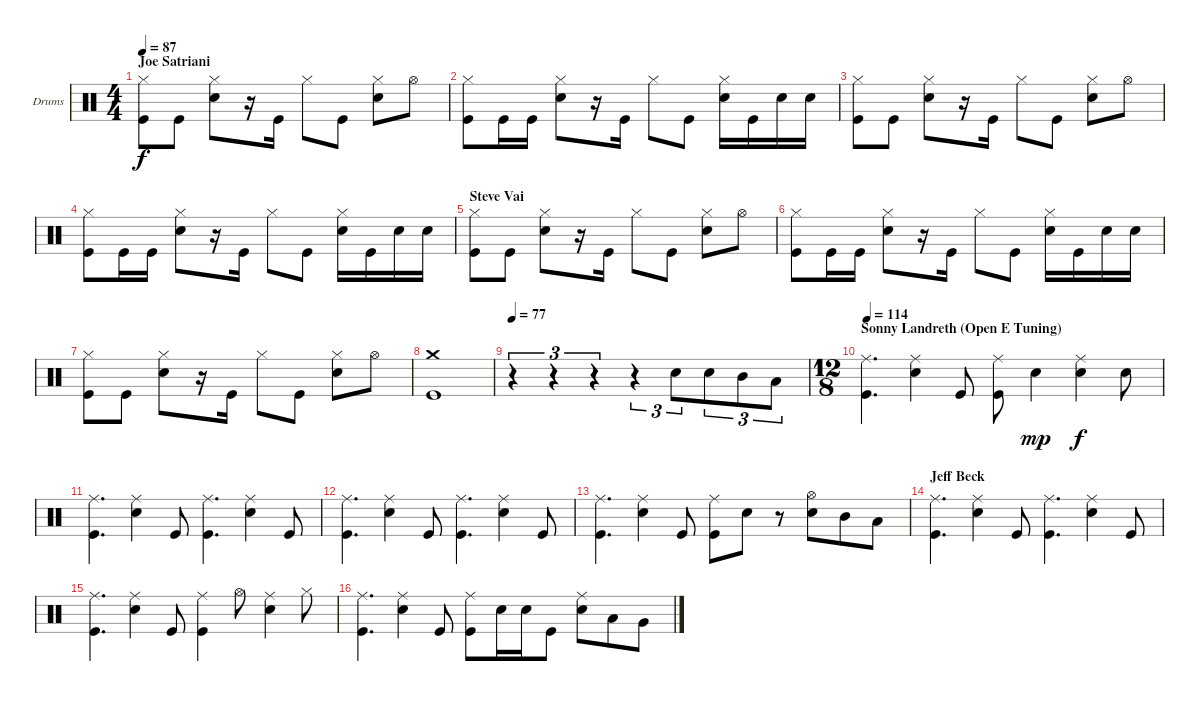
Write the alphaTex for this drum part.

\defaultSystemsLayout 4
\bracketExtendMode groupsimilarinstruments
\firstSystemTrackNameOrientation horizontal
\otherSystemsTrackNameOrientation horizontal
\track ("Drumkit" "Drums") {instrument percussion}
\staff {score}
\articulation defaults
\ts (4 4)
\section ("" "Joe Satriani")
\tempo 87
\clef neutral
\ks c
("Hi-Hat (closed)" "Kick (hit)").8{dy f} "Kick (hit)".8 ("Hi-Hat (closed)" "Snare (hit) 2").8 r.16 "Kick (hit)".16 "Hi-Hat (closed)".8 "Kick (hit)".8 ("Hi-Hat (closed)" "Snare (hit) 2").8 "Hi-Hat (open)".8 |
("Hi-Hat (closed)" "Kick (hit)").8 "Kick (hit)".16 "Kick (hit)".16 ("Hi-Hat (closed)" "Snare (hit) 2").8 r.16 "Kick (hit)".16 "Hi-Hat (closed)".8 "Kick (hit)".8 ("Hi-Hat (closed)" "Snare (hit) 2").16 "Kick (hit)".16 "Snare (hit) 2".16 "Snare (hit) 2".16 |
("Hi-Hat (closed)" "Kick (hit)").8 "Kick (hit)".8 ("Hi-Hat (closed)" "Snare (hit) 2").8 r.16 "Kick (hit)".16 "Hi-Hat (closed)".8 "Kick (hit)".8 ("Hi-Hat (closed)" "Snare (hit) 2").8 "Hi-Hat (open)".8 |
("Hi-Hat (closed)" "Kick (hit)").8 "Kick (hit)".16 "Kick (hit)".16 ("Hi-Hat (closed)" "Snare (hit) 2").8 r.16 "Kick (hit)".16 "Hi-Hat (closed)".8 "Kick (hit)".8 ("Hi-Hat (closed)" "Snare (hit) 2").16 "Kick (hit)".16 "Snare (hit) 2".16 "Snare (hit) 2".16 |
\section ("" "Steve Vai")
("Hi-Hat (closed)" "Kick (hit)").8 "Kick (hit)".8 ("Hi-Hat (closed)" "Snare (hit) 2").8 r.16 "Kick (hit)".16 "Hi-Hat (closed)".8 "Kick (hit)".8 ("Hi-Hat (closed)" "Snare (hit) 2").8 "Hi-Hat (open)".8 |
("Hi-Hat (closed)" "Kick (hit)").8 "Kick (hit)".16 "Kick (hit)".16 ("Hi-Hat (closed)" "Snare (hit) 2").8 r.16 "Kick (hit)".16 "Hi-Hat (closed)".8 "Kick (hit)".8 ("Hi-Hat (closed)" "Snare (hit) 2").16 "Kick (hit)".16 "Snare (hit) 2".16 "Snare (hit) 2".16 |
("Hi-Hat (closed)" "Kick (hit)").8 "Kick (hit)".8 ("Hi-Hat (closed)" "Snare (hit) 2").8 r.16 "Kick (hit)".16 "Hi-Hat (closed)".8 "Kick (hit)".8 ("Hi-Hat (closed)" "Snare (hit) 2").8 "Hi-Hat (open)".8 |
("Crash medium (hit)" "Kick (hit)").1 |
\tempo 77
r.4{tu (3 2)} r.4{tu (3 2)} r.4{tu (3 2)} r.4{tu (3 2)} "Snare (hit) 2".8{tu (3 2) beam merge} "Snare (hit) 2".8{tu (3 2) beam merge} "Mid Tom (hit)".8{tu (3 2) beam merge} "Low Tom (hit)".8{tu (3 2)} |
\ts (12 8)
\section ("" "Sonny Landreth (Open E Tuning)")
\tempo (114 0.00625)
("Ride (middle)" "Kick (hit)").4{d} ("Ride (middle)" "Snare (hit) 2").4 "Kick (hit)".8 ("Ride (middle)" "Kick (hit)").8 "Snare (hit) 2".4{dy mp} ("Ride (middle)" "Snare (hit) 2").4{dy f} "Snare (hit) 2".8 |
("Ride (middle)" "Kick (hit)").4{d} ("Ride (middle)" "Snare (hit) 2").4 "Kick (hit)".8 ("Ride (middle)" "Kick (hit)").4{d} ("Ride (middle)" "Snare (hit) 2").4 "Kick (hit)".8 |
("Ride (middle)" "Kick (hit)").4{d} ("Ride (middle)" "Snare (hit) 2").4 "Kick (hit)".8 ("Ride (middle)" "Kick (hit)").4{d} ("Ride (middle)" "Snare (hit) 2").4 "Kick (hit)".8 |
("Ride (middle)" "Kick (hit)").4{d} ("Ride (middle)" "Snare (hit) 2").4 "Kick (hit)".8 ("Ride (middle)" "Kick (hit)").8 "Snare (hit) 2".8 r.8 ("Hi-Hat (open)" "Snare (hit) 2").8 "Mid Tom (hit)".8 "Low Tom (hit)".8 |
\section ("" "Jeff Beck")
("Ride (middle)" "Kick (hit)").4{d} ("Ride (middle)" "Snare (hit) 2").4 "Kick (hit)".8 ("Ride (middle)" "Kick (hit)").4{d} ("Ride (middle)" "Snare (hit) 2").4 "Kick (hit)".8 |
("Ride (middle)" "Kick (hit)").4{d} ("Ride (middle)" "Snare (hit) 2").4 "Kick (hit)".8 ("Ride (middle)" "Kick (hit)").4 "Hi-Hat (open)".8 ("Ride (middle)" "Snare (hit) 2").4 "Hi-Hat (closed)".8 |
("Ride (middle)" "Kick (hit)").4{d} ("Ride (middle)" "Snare (hit) 2").4 "Kick (hit)".8 ("Ride (middle)" "Kick (hit)").8 "Snare (hit) 2".16 "Snare (hit) 2".16 "Kick (hit)".8 ("Ride (middle)" "Snare (hit) 2").8 "Low Tom (hit)".8 "Very Low Tom (hit)".8
